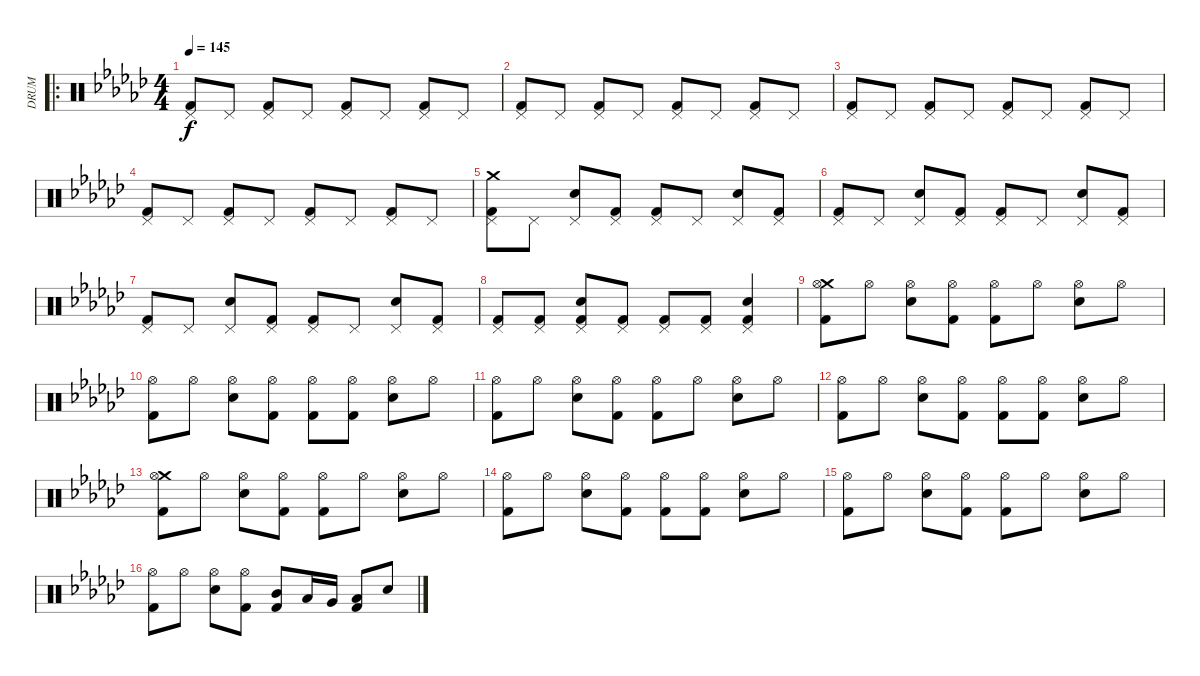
\track ("DRUM" "DRUM") {instrument percussion}
\staff {score}
\articulation defaults
\ro
\ts (4 4)
\tempo 145
\clef neutral
\ks ebminor
("Pedal Hi-Hat (hit)" "Kick (hit) 2").8{dy f} "Pedal Hi-Hat (hit)".8 ("Pedal Hi-Hat (hit)" "Kick (hit) 2").8 "Pedal Hi-Hat (hit)".8 ("Pedal Hi-Hat (hit)" "Kick (hit) 2").8 "Pedal Hi-Hat (hit)".8 ("Pedal Hi-Hat (hit)" "Kick (hit) 2").8 "Pedal Hi-Hat (hit)".8 |
("Pedal Hi-Hat (hit)" "Kick (hit) 2").8 "Pedal Hi-Hat (hit)".8 ("Pedal Hi-Hat (hit)" "Kick (hit) 2").8 "Pedal Hi-Hat (hit)".8 ("Pedal Hi-Hat (hit)" "Kick (hit) 2").8 "Pedal Hi-Hat (hit)".8 ("Pedal Hi-Hat (hit)" "Kick (hit) 2").8 "Pedal Hi-Hat (hit)".8 |
("Pedal Hi-Hat (hit)" "Kick (hit) 2").8 "Pedal Hi-Hat (hit)".8 ("Pedal Hi-Hat (hit)" "Kick (hit) 2").8 "Pedal Hi-Hat (hit)".8 ("Pedal Hi-Hat (hit)" "Kick (hit) 2").8 "Pedal Hi-Hat (hit)".8 ("Pedal Hi-Hat (hit)" "Kick (hit) 2").8 "Pedal Hi-Hat (hit)".8 |
("Pedal Hi-Hat (hit)" "Kick (hit) 2").8 "Pedal Hi-Hat (hit)".8 ("Pedal Hi-Hat (hit)" "Kick (hit) 2").8 "Pedal Hi-Hat (hit)".8 ("Pedal Hi-Hat (hit)" "Kick (hit) 2").8 "Pedal Hi-Hat (hit)".8 ("Pedal Hi-Hat (hit)" "Kick (hit) 2").8 "Pedal Hi-Hat (hit)".8 |
("Crash medium (hit)" "Pedal Hi-Hat (hit)" "Kick (hit) 2").8 "Pedal Hi-Hat (hit)".8 ("Pedal Hi-Hat (hit)" "Electric Snare (hit)").8 ("Pedal Hi-Hat (hit)" "Kick (hit) 2").8 ("Pedal Hi-Hat (hit)" "Kick (hit) 2").8 "Pedal Hi-Hat (hit)".8 ("Pedal Hi-Hat (hit)" "Electric Snare (hit)").8 ("Pedal Hi-Hat (hit)" "Kick (hit) 2").8 |
("Pedal Hi-Hat (hit)" "Kick (hit) 2").8 "Pedal Hi-Hat (hit)".8 ("Pedal Hi-Hat (hit)" "Electric Snare (hit)").8 ("Pedal Hi-Hat (hit)" "Kick (hit) 2").8 ("Pedal Hi-Hat (hit)" "Kick (hit) 2").8 "Pedal Hi-Hat (hit)".8 ("Pedal Hi-Hat (hit)" "Electric Snare (hit)").8 ("Pedal Hi-Hat (hit)" "Kick (hit) 2").8 |
("Pedal Hi-Hat (hit)" "Kick (hit) 2").8 "Pedal Hi-Hat (hit)".8 ("Pedal Hi-Hat (hit)" "Electric Snare (hit)").8 ("Pedal Hi-Hat (hit)" "Kick (hit) 2").8 ("Pedal Hi-Hat (hit)" "Kick (hit) 2").8 "Pedal Hi-Hat (hit)".8 ("Pedal Hi-Hat (hit)" "Electric Snare (hit)").8 ("Pedal Hi-Hat (hit)" "Kick (hit) 2").8 |
("Pedal Hi-Hat (hit)" "Kick (hit) 2").8 ("Pedal Hi-Hat (hit)" "Kick (hit) 2").8 ("Pedal Hi-Hat (hit)" "Electric Snare (hit)" "Kick (hit) 2").8 ("Pedal Hi-Hat (hit)" "Kick (hit) 2").8 ("Pedal Hi-Hat (hit)" "Kick (hit) 2").8 ("Pedal Hi-Hat (hit)" "Kick (hit) 2").8 ("Pedal Hi-Hat (hit)" "Electric Snare (hit)" "Kick (hit) 2").4 |
("Crash medium (hit)" "Hi-Hat (open)" "Kick (hit) 2").8 "Hi-Hat (open)".8 ("Hi-Hat (open)" "Electric Snare (hit)").8 ("Hi-Hat (open)" "Kick (hit) 2").8 ("Hi-Hat (open)" "Kick (hit) 2").8 "Hi-Hat (open)".8 ("Hi-Hat (open)" "Electric Snare (hit)").8 "Hi-Hat (open)".8 |
("Hi-Hat (open)" "Kick (hit) 2").8 "Hi-Hat (open)".8 ("Hi-Hat (open)" "Electric Snare (hit)").8 ("Hi-Hat (open)" "Kick (hit) 2").8 ("Hi-Hat (open)" "Kick (hit) 2").8 ("Hi-Hat (open)" "Kick (hit) 2").8 ("Hi-Hat (open)" "Electric Snare (hit)").8 "Hi-Hat (open)".8 |
("Hi-Hat (open)" "Kick (hit) 2").8 "Hi-Hat (open)".8 ("Hi-Hat (open)" "Electric Snare (hit)").8 ("Hi-Hat (open)" "Kick (hit) 2").8 ("Hi-Hat (open)" "Kick (hit) 2").8 "Hi-Hat (open)".8 ("Hi-Hat (open)" "Electric Snare (hit)").8 "Hi-Hat (open)".8 |
("Hi-Hat (open)" "Kick (hit) 2").8 "Hi-Hat (open)".8 ("Hi-Hat (open)" "Electric Snare (hit)").8 ("Hi-Hat (open)" "Kick (hit) 2").8 ("Hi-Hat (open)" "Kick (hit) 2").8 ("Hi-Hat (open)" "Kick (hit) 2").8 ("Hi-Hat (open)" "Electric Snare (hit)").8 "Hi-Hat (open)".8 |
("Crash medium (hit)" "Hi-Hat (open)" "Kick (hit) 2").8 "Hi-Hat (open)".8 ("Hi-Hat (open)" "Electric Snare (hit)").8 ("Hi-Hat (open)" "Kick (hit) 2").8 ("Hi-Hat (open)" "Kick (hit) 2").8 "Hi-Hat (open)".8 ("Hi-Hat (open)" "Electric Snare (hit)").8 "Hi-Hat (open)".8 |
("Hi-Hat (open)" "Kick (hit) 2").8 "Hi-Hat (open)".8 ("Hi-Hat (open)" "Electric Snare (hit)").8 ("Hi-Hat (open)" "Kick (hit) 2").8 ("Hi-Hat (open)" "Kick (hit) 2").8 ("Hi-Hat (open)" "Kick (hit) 2").8 ("Hi-Hat (open)" "Electric Snare (hit)").8 "Hi-Hat (open)".8 |
("Hi-Hat (open)" "Kick (hit) 2").8 "Hi-Hat (open)".8 ("Hi-Hat (open)" "Electric Snare (hit)").8 ("Hi-Hat (open)" "Kick (hit) 2").8 ("Hi-Hat (open)" "Kick (hit) 2").8 "Hi-Hat (open)".8 ("Hi-Hat (open)" "Electric Snare (hit)").8 "Hi-Hat (open)".8 |
("Hi-Hat (open)" "Kick (hit) 2").8 "Hi-Hat (open)".8 ("Hi-Hat (open)" "Electric Snare (hit)").8 ("Hi-Hat (open)" "Kick (hit) 2").8 ("Mid Tom (hit)" "Kick (hit) 2").8 "Low Tom (hit)".16 "Very Low Tom (hit)".16 ("Low Floor Tom (hit)" "Kick (hit) 2").8 "Electric Snare (hit)".8
